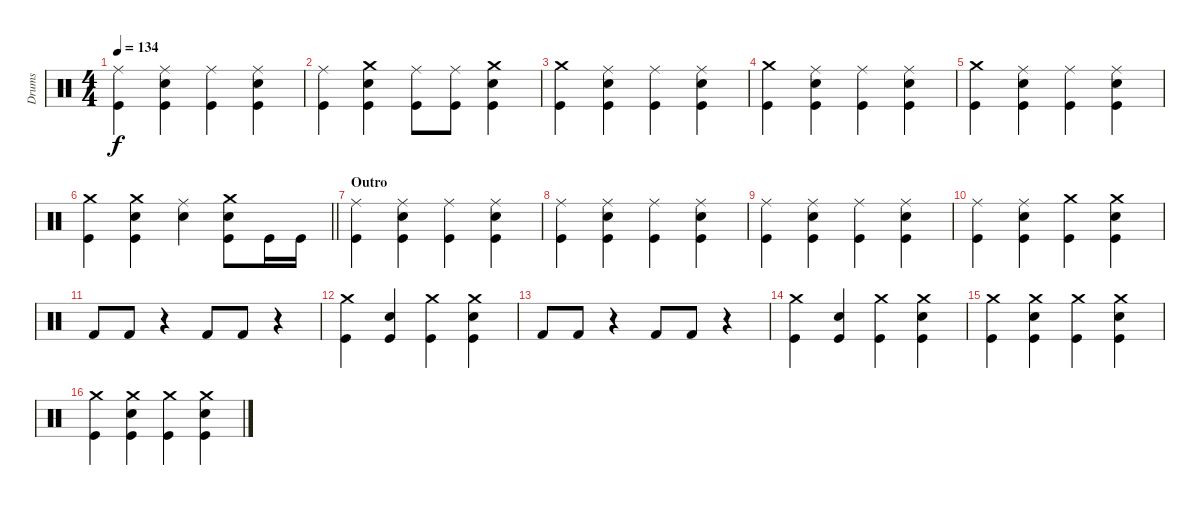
\track ("Drums" "Drums") {instrument percussion}
\staff {score}
\articulation defaults
\ts (4 4)
\tempo 134
\clef neutral
\ks c
("Ride (middle)" "Kick (hit)").4{dy f} ("Ride (middle)" "Kick (hit)" "Snare (hit) 2").4 ("Ride (middle)" "Kick (hit)").4 ("Ride (middle)" "Kick (hit)" "Snare (hit) 2").4 |
("Ride (middle)" "Kick (hit)").4 ("Crash medium (hit)" "Kick (hit)" "Snare (hit) 2").4 ("Ride (middle)" "Kick (hit)").8 ("Ride (middle)" "Kick (hit)").8 ("Crash medium (hit)" "Kick (hit)" "Snare (hit) 2").4 |
("Crash medium (hit)" "Kick (hit)").4 ("Ride (middle)" "Kick (hit)" "Snare (hit) 2").4 ("Ride (middle)" "Kick (hit)").4 ("Ride (middle)" "Kick (hit)" "Snare (hit) 2").4 |
("Crash medium (hit)" "Kick (hit)").4 ("Ride (middle)" "Kick (hit)" "Snare (hit) 2").4 ("Ride (middle)" "Kick (hit)").4 ("Ride (middle)" "Kick (hit)" "Snare (hit) 2").4 |
("Crash medium (hit)" "Kick (hit)").4 ("Ride (middle)" "Kick (hit)" "Snare (hit) 2").4 ("Ride (middle)" "Kick (hit)").4 ("Ride (middle)" "Kick (hit)" "Snare (hit) 2").4 |
\barLineRight lightlight
("Crash medium (hit)" "Kick (hit)").4 ("Crash medium (hit)" "Kick (hit)" "Snare (hit) 2").4 ("Ride (middle)" "Snare (hit) 2").4 ("Crash medium (hit)" "Kick (hit)" "Snare (hit) 2").8 "Kick (hit)".16 "Kick (hit)".16 |
\section ("" "Outro")
("Ride (middle)" "Kick (hit)").4 ("Ride (middle)" "Kick (hit)" "Snare (hit) 2").4 ("Ride (middle)" "Kick (hit)").4 ("Ride (middle)" "Kick (hit)" "Snare (hit) 2").4 |
("Ride (middle)" "Kick (hit)").4 ("Ride (middle)" "Kick (hit)" "Snare (hit) 2").4 ("Ride (middle)" "Kick (hit)").4 ("Ride (middle)" "Kick (hit)" "Snare (hit) 2").4 |
("Ride (middle)" "Kick (hit)").4 ("Ride (middle)" "Kick (hit)" "Snare (hit) 2").4 ("Ride (middle)" "Kick (hit)").4 ("Ride (middle)" "Kick (hit)" "Snare (hit) 2").4 |
("Ride (middle)" "Kick (hit)").4 ("Ride (middle)" "Kick (hit)" "Snare (hit) 2").4 ("Crash medium (hit)" "Kick (hit)").4 ("Crash medium (hit)" "Kick (hit)" "Snare (hit) 2").4 |
"Kick (hit) 2".8 "Kick (hit) 2".8 r.4 "Kick (hit) 2".8 "Kick (hit) 2".8 r.4 |
("Crash medium (hit)" "Kick (hit)").4 ("Kick (hit)" "Snare (hit) 2").4 ("Crash medium (hit)" "Kick (hit)").4 ("Crash medium (hit)" "Kick (hit)" "Snare (hit) 2").4 |
"Kick (hit) 2".8 "Kick (hit) 2".8 r.4 "Kick (hit) 2".8 "Kick (hit) 2".8 r.4 |
("Crash medium (hit)" "Kick (hit)").4 ("Kick (hit)" "Snare (hit) 2").4 ("Crash medium (hit)" "Kick (hit)").4 ("Crash medium (hit)" "Kick (hit)" "Snare (hit) 2").4 |
("Crash medium (hit)" "Kick (hit)").4 ("Crash medium (hit)" "Kick (hit)" "Snare (hit) 2").4 ("Crash medium (hit)" "Kick (hit)").4 ("Crash medium (hit)" "Kick (hit)" "Snare (hit) 2").4 |
("Crash medium (hit)" "Kick (hit)").4 ("Crash medium (hit)" "Kick (hit)" "Snare (hit) 2").4 ("Crash medium (hit)" "Kick (hit)").4 ("Crash medium (hit)" "Kick (hit)" "Snare (hit) 2").4
